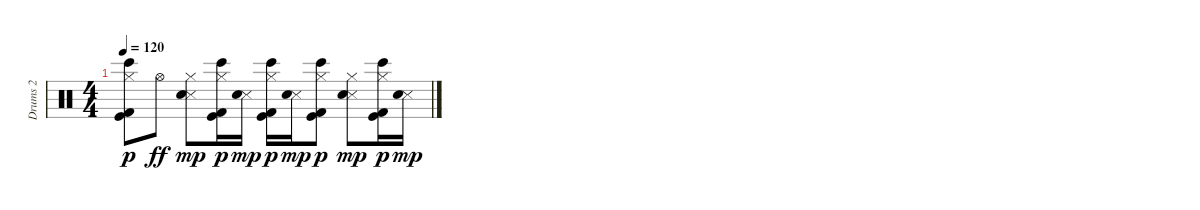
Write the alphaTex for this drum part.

\track ("Drums 2" "Drums 2") {instrument percussion}
\staff {score}
\articulation defaults
\ts (4 4)
\tempo 120
\clef neutral
\ks c
("Hi-Hat (closed)" "Bongo High (hit)" "Kick (hit) 2" "Kick (hit)").8{dy p volume 4} "Hi-Hat (open)".8{dy ff} ("Hi-Hat (closed)" "Metronome (hit)" "Electric Snare (hit)").8{dy mp} ("Hi-Hat (closed)" "Bongo High (hit)" "Kick (hit) 2" "Kick (hit)").16{dy p} ("Metronome (hit)" "Electric Snare (hit)").16{dy mp} ("Hi-Hat (closed)" "Bongo High (hit)" "Kick (hit) 2" "Kick (hit)").16{dy p volume 2} ("Metronome (hit)" "Electric Snare (hit)").16{dy mp} ("Hi-Hat (closed)" "Bongo High (hit)" "Kick (hit) 2" "Kick (hit)").8{dy p} ("Hi-Hat (closed)" "Metronome (hit)" "Electric Snare (hit)").8{dy mp} ("Hi-Hat (closed)" "Bongo High (hit)" "Kick (hit) 2" "Kick (hit)").16{dy p} ("Metronome (hit)" "Electric Snare (hit)").16{dy mp}
